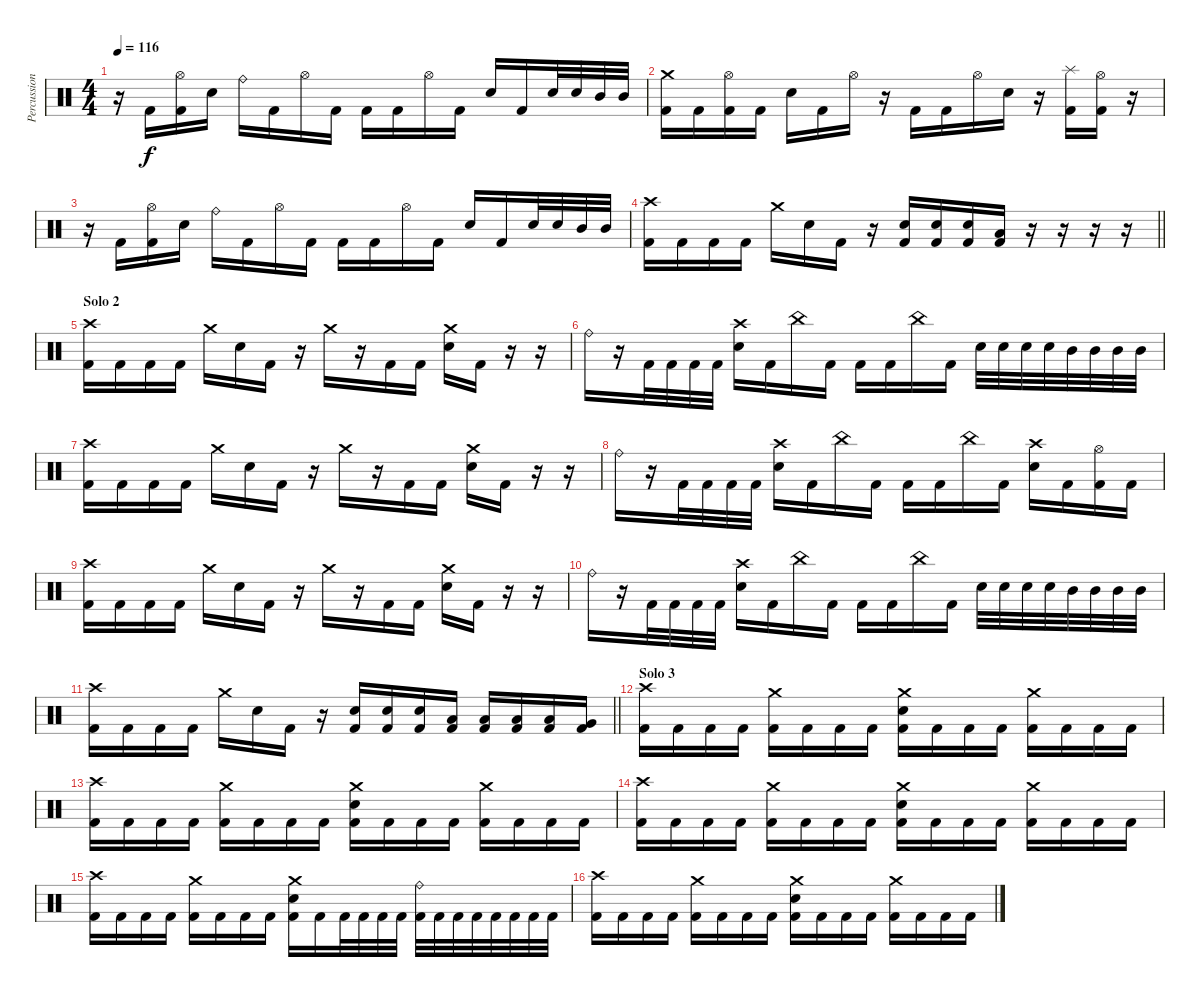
\track ("Percussion" "Percussion") {instrument percussion}
\staff {score}
\articulation defaults
\ts (4 4)
\tempo 116
\clef neutral
\ks c
r.16{dy f} "Kick (hit) 2".16 ("Hi-Hat (open)" "Kick (hit) 2").16 "Electric Snare (hit)".16 "Ride (bell)".16 "Kick (hit) 2".16 "Hi-Hat (open)".16 "Kick (hit) 2".16 "Kick (hit) 2".16 "Kick (hit) 2".16 "Hi-Hat (open)".16 "Kick (hit) 2".16 "Electric Snare (hit)".16 "Kick (hit) 2".16 "Electric Snare (hit)".32 "Electric Snare (hit)".32 "Mid Tom (hit)".32 "Mid Tom (hit)".32 |
("Crash medium (hit)" "Kick (hit) 2").16 "Kick (hit) 2".16 ("Hi-Hat (open)" "Kick (hit) 2").16 "Kick (hit) 2".16 "Electric Snare (hit)".16 "Kick (hit) 2".16 "Hi-Hat (open)".16 r.16 "Kick (hit) 2".16 "Kick (hit) 2".16 "Hi-Hat (open)".16 "Electric Snare (hit)".16 r.16 ("Splash (hit)" "Kick (hit) 2").16 ("Hi-Hat (open)" "Kick (hit) 2").16 r.16 |
r.16 "Kick (hit) 2".16 ("Hi-Hat (open)" "Kick (hit) 2").16 "Electric Snare (hit)".16 "Ride (bell)".16 "Kick (hit) 2".16 "Hi-Hat (open)".16 "Kick (hit) 2".16 "Kick (hit) 2".16 "Kick (hit) 2".16 "Hi-Hat (open)".16 "Kick (hit) 2".16 "Electric Snare (hit)".16 "Kick (hit) 2".16 "Electric Snare (hit)".32 "Electric Snare (hit)".32 "Mid Tom (hit)".32 "Mid Tom (hit)".32 |
\barLineRight lightlight
("Crash high (hit)" "Kick (hit) 2").16 "Kick (hit) 2".16 "Kick (hit) 2".16 "Kick (hit) 2".16 "Crash medium (hit)".16 "Electric Snare (hit)".16 "Kick (hit) 2".16 r.16 ("Electric Snare (hit)" "Kick (hit) 2").16 ("Electric Snare (hit)" "Kick (hit) 2").16 ("Electric Snare (hit)" "Kick (hit) 2").16 ("Low Floor Tom (hit)" "Kick (hit) 2").16 r.16 r.16 r.16 r.16 |
\section ("" "Solo 2")
("Crash high (hit)" "Kick (hit) 2").16 "Kick (hit) 2".16 "Kick (hit) 2".16 "Kick (hit) 2".16 "Crash medium (hit)".16 "Electric Snare (hit)".16 "Kick (hit) 2".16 r.16 "Crash medium (hit)".16 r.16 "Kick (hit) 2".16 "Kick (hit) 2".16 ("Crash medium (hit)" "Electric Snare (hit)").16 "Kick (hit) 2".16 r.16 r.16 |
"Ride (bell)".16 r.16 "Kick (hit) 2".32 "Kick (hit) 2".32 "Kick (hit) 2".32 "Kick (hit) 2".32 ("Crash high (hit)" "Electric Snare (hit)").16 "Kick (hit) 2".16 "China (hit)".16 "Kick (hit) 2".16 "Kick (hit) 2".16 "Kick (hit) 2".16 "China (hit)".16 "Kick (hit) 2".16 "Electric Snare (hit)".32 "Electric Snare (hit)".32 "Electric Snare (hit)".32 "Electric Snare (hit)".32 "Mid Tom (hit)".32 "Mid Tom (hit)".32 "Mid Tom (hit)".32 "Mid Tom (hit)".32 |
("Crash high (hit)" "Kick (hit) 2").16 "Kick (hit) 2".16 "Kick (hit) 2".16 "Kick (hit) 2".16 "Crash medium (hit)".16 "Electric Snare (hit)".16 "Kick (hit) 2".16 r.16 "Crash medium (hit)".16 r.16 "Kick (hit) 2".16 "Kick (hit) 2".16 ("Crash medium (hit)" "Electric Snare (hit)").16 "Kick (hit) 2".16 r.16 r.16 |
"Ride (bell)".16 r.16 "Kick (hit) 2".32 "Kick (hit) 2".32 "Kick (hit) 2".32 "Kick (hit) 2".32 ("Crash high (hit)" "Electric Snare (hit)").16 "Kick (hit) 2".16 "China (hit)".16 "Kick (hit) 2".16 "Kick (hit) 2".16 "Kick (hit) 2".16 "China (hit)".16 "Kick (hit) 2".16 ("Crash high (hit)" "Electric Snare (hit)").16 "Kick (hit) 2".16 ("Hi-Hat (open)" "Kick (hit) 2").16 "Kick (hit) 2".16 |
("Crash high (hit)" "Kick (hit) 2").16 "Kick (hit) 2".16 "Kick (hit) 2".16 "Kick (hit) 2".16 "Crash medium (hit)".16 "Electric Snare (hit)".16 "Kick (hit) 2".16 r.16 "Crash medium (hit)".16 r.16 "Kick (hit) 2".16 "Kick (hit) 2".16 ("Crash medium (hit)" "Electric Snare (hit)").16 "Kick (hit) 2".16 r.16 r.16 |
"Ride (bell)".16 r.16 "Kick (hit) 2".32 "Kick (hit) 2".32 "Kick (hit) 2".32 "Kick (hit) 2".32 ("Crash high (hit)" "Electric Snare (hit)").16 "Kick (hit) 2".16 "China (hit)".16 "Kick (hit) 2".16 "Kick (hit) 2".16 "Kick (hit) 2".16 "China (hit)".16 "Kick (hit) 2".16 "Electric Snare (hit)".32 "Electric Snare (hit)".32 "Electric Snare (hit)".32 "Electric Snare (hit)".32 "Mid Tom (hit)".32 "Mid Tom (hit)".32 "Mid Tom (hit)".32 "Mid Tom (hit)".32 |
\barLineRight lightlight
("Crash high (hit)" "Kick (hit) 2").16 "Kick (hit) 2".16 "Kick (hit) 2".16 "Kick (hit) 2".16 "Crash medium (hit)".16 "Electric Snare (hit)".16 "Kick (hit) 2".16 r.16 ("Electric Snare (hit)" "Kick (hit) 2").16 ("Electric Snare (hit)" "Kick (hit) 2").16 ("Electric Snare (hit)" "Kick (hit) 2").16 ("Low Tom (hit)" "Kick (hit) 2").16 ("Low Tom (hit)" "Kick (hit) 2").16 ("Low Tom (hit)" "Kick (hit) 2").16 ("Low Tom (hit)" "Kick (hit) 2").16 ("Very Low Tom (hit)" "Kick (hit) 2").16 |
\section ("" "Solo 3")
("Crash high (hit)" "Kick (hit) 2").16 "Kick (hit) 2".16 "Kick (hit) 2".16 "Kick (hit) 2".16 ("Crash medium (hit)" "Kick (hit) 2").16 "Kick (hit) 2".16 "Kick (hit) 2".16 "Kick (hit) 2".16 ("Crash medium (hit)" "Electric Snare (hit)" "Kick (hit) 2").16 "Kick (hit) 2".16 "Kick (hit) 2".16 "Kick (hit) 2".16 ("Crash medium (hit)" "Kick (hit) 2").16 "Kick (hit) 2".16 "Kick (hit) 2".16 "Kick (hit) 2".16 |
("Crash high (hit)" "Kick (hit) 2").16 "Kick (hit) 2".16 "Kick (hit) 2".16 "Kick (hit) 2".16 ("Crash medium (hit)" "Kick (hit) 2").16 "Kick (hit) 2".16 "Kick (hit) 2".16 "Kick (hit) 2".16 ("Crash medium (hit)" "Electric Snare (hit)" "Kick (hit) 2").16 "Kick (hit) 2".16 "Kick (hit) 2".16 "Kick (hit) 2".16 ("Crash medium (hit)" "Kick (hit) 2").16 "Kick (hit) 2".16 "Kick (hit) 2".16 "Kick (hit) 2".16 |
("Crash high (hit)" "Kick (hit) 2").16 "Kick (hit) 2".16 "Kick (hit) 2".16 "Kick (hit) 2".16 ("Crash medium (hit)" "Kick (hit) 2").16 "Kick (hit) 2".16 "Kick (hit) 2".16 "Kick (hit) 2".16 ("Crash medium (hit)" "Electric Snare (hit)" "Kick (hit) 2").16 "Kick (hit) 2".16 "Kick (hit) 2".16 "Kick (hit) 2".16 ("Crash medium (hit)" "Kick (hit) 2").16 "Kick (hit) 2".16 "Kick (hit) 2".16 "Kick (hit) 2".16 |
("Crash high (hit)" "Kick (hit) 2").16 "Kick (hit) 2".16 "Kick (hit) 2".16 "Kick (hit) 2".16 ("Crash medium (hit)" "Kick (hit) 2").16 "Kick (hit) 2".16 "Kick (hit) 2".16 "Kick (hit) 2".16 ("Crash medium (hit)" "Electric Snare (hit)" "Kick (hit) 2").16 "Kick (hit) 2".16 "Kick (hit) 2".32 "Kick (hit) 2".32 "Kick (hit) 2".32 "Kick (hit) 2".32 ("Ride (bell)" "Kick (hit) 2").32 "Kick (hit) 2".32 "Kick (hit) 2".32 "Kick (hit) 2".32 "Kick (hit) 2".32 "Kick (hit) 2".32 "Kick (hit) 2".32 "Kick (hit) 2".32 |
("Crash high (hit)" "Kick (hit) 2").16 "Kick (hit) 2".16 "Kick (hit) 2".16 "Kick (hit) 2".16 ("Crash medium (hit)" "Kick (hit) 2").16 "Kick (hit) 2".16 "Kick (hit) 2".16 "Kick (hit) 2".16 ("Crash medium (hit)" "Electric Snare (hit)" "Kick (hit) 2").16 "Kick (hit) 2".16 "Kick (hit) 2".16 "Kick (hit) 2".16 ("Crash medium (hit)" "Kick (hit) 2").16 "Kick (hit) 2".16 "Kick (hit) 2".16 "Kick (hit) 2".16
